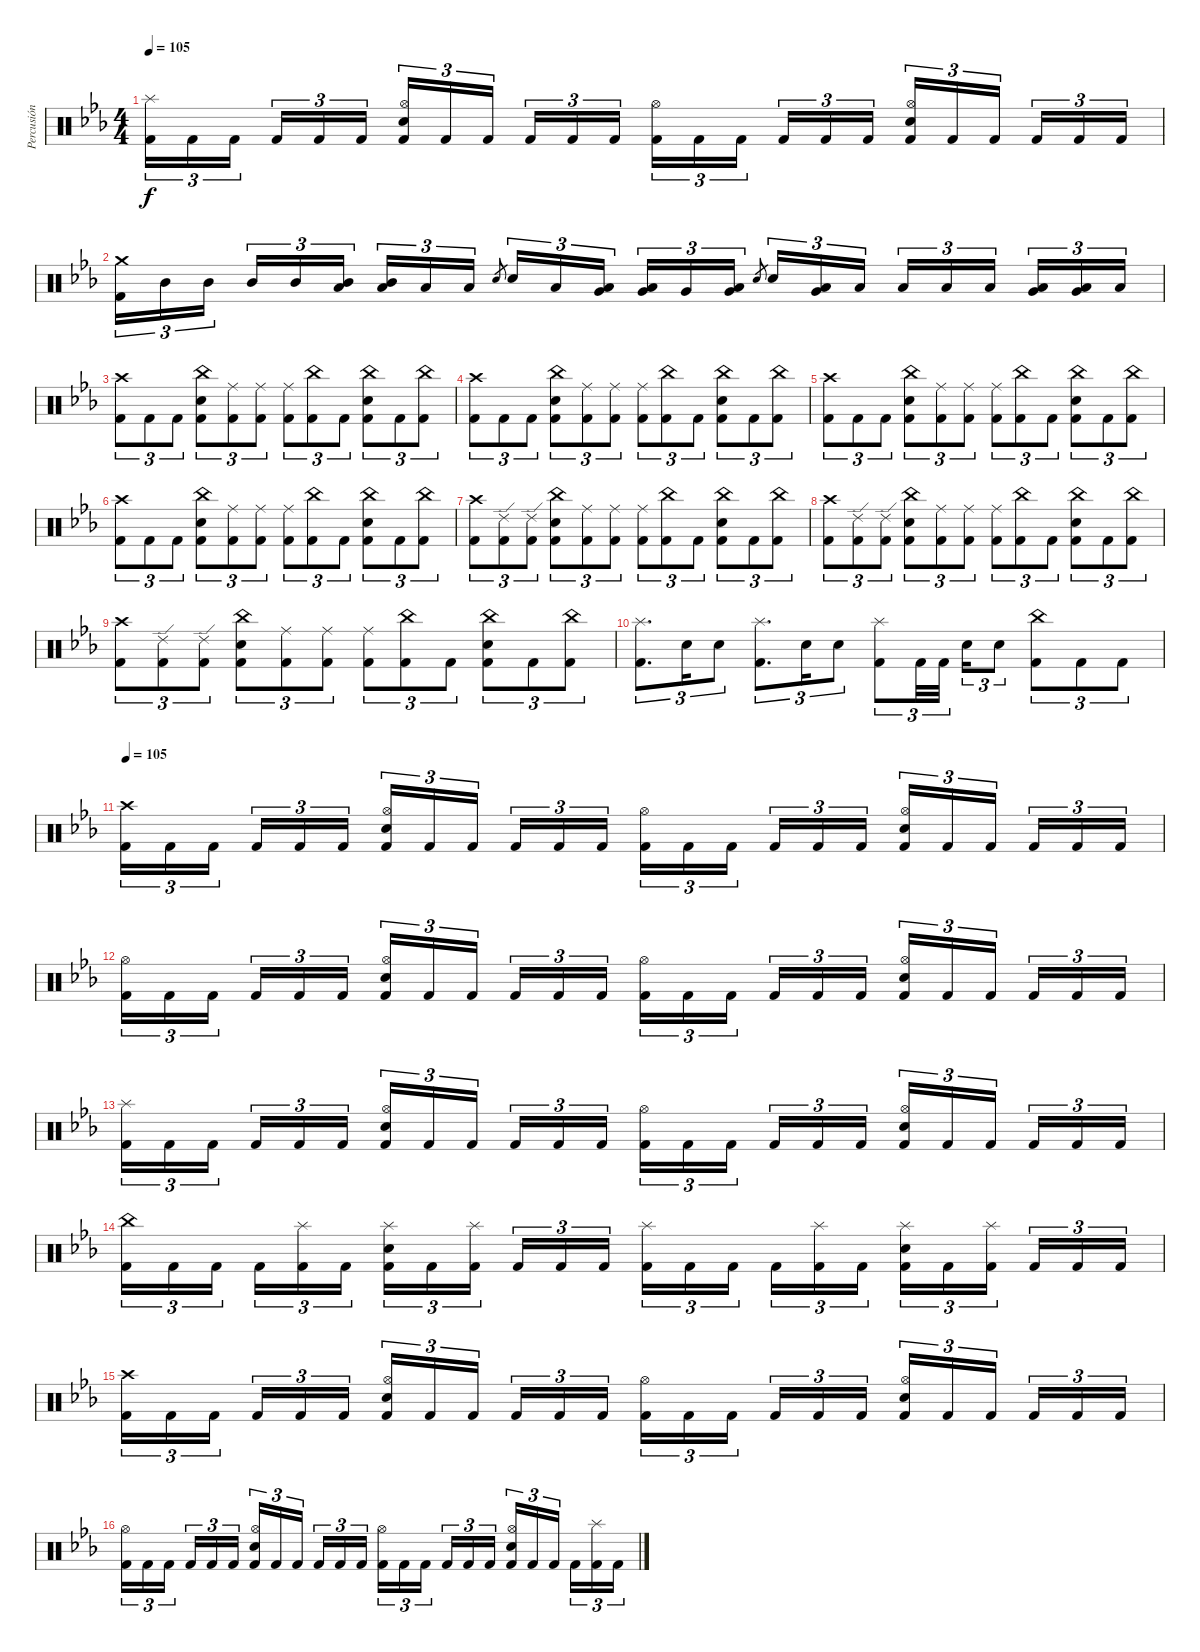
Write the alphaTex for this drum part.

\track ("Percusión" "Percusión") {instrument percussion}
\staff {score}
\articulation defaults
\ts (4 4)
\tempo 105
\clef neutral
\ks cminor
("Splash (hit)" "Kick (hit) 2").16{tu (3 2) dy f} "Kick (hit) 2".16{tu (3 2)} "Kick (hit) 2".16{tu (3 2) beam splitsecondary} "Kick (hit) 2".16{tu (3 2)} "Kick (hit) 2".16{tu (3 2)} "Kick (hit) 2".16{tu (3 2)} ("Hi-Hat (open)" "Snare (hit) 2" "Kick (hit) 2").16{tu (3 2)} "Kick (hit) 2".16{tu (3 2)} "Kick (hit) 2".16{tu (3 2) beam splitsecondary} "Kick (hit) 2".16{tu (3 2)} "Kick (hit) 2".16{tu (3 2)} "Kick (hit) 2".16{tu (3 2)} ("Hi-Hat (open)" "Kick (hit) 2").16{tu (3 2)} "Kick (hit) 2".16{tu (3 2)} "Kick (hit) 2".16{tu (3 2) beam splitsecondary} "Kick (hit) 2".16{tu (3 2)} "Kick (hit) 2".16{tu (3 2)} "Kick (hit) 2".16{tu (3 2)} ("Hi-Hat (open)" "Snare (hit) 2" "Kick (hit) 2").16{tu (3 2)} "Kick (hit) 2".16{tu (3 2)} "Kick (hit) 2".16{tu (3 2) beam splitsecondary} "Kick (hit) 2".16{tu (3 2)} "Kick (hit) 2".16{tu (3 2)} "Kick (hit) 2".16{tu (3 2)} |
("Crash medium (hit)" "Kick (hit) 2").16{tu (3 2)} "Mid Tom (hit)".16{tu (3 2)} "Mid Tom (hit)".16{tu (3 2) beam splitsecondary} "Mid Tom (hit)".16{tu (3 2)} "Mid Tom (hit)".16{tu (3 2)} ("Low Tom (hit)" "Mid Tom (hit)").16{tu (3 2)} ("Low Tom (hit)" "Mid Tom (hit)").16{tu (3 2)} "Low Tom (hit)".16{tu (3 2)} "Low Tom (hit)".16{tu (3 2)} "Snare (hit) 2".8{gr beam splitsecondary} "Snare (hit) 2".16{tu (3 2)} "Low Tom (hit)".16{tu (3 2)} ("Low Tom (hit)" "Very Low Tom (hit)").16{tu (3 2)} ("Low Tom (hit)" "Very Low Tom (hit)").16{tu (3 2)} "Very Low Tom (hit)".16{tu (3 2)} ("Very Low Tom (hit)" "Low Floor Tom (hit)").16{tu (3 2)} "Snare (hit) 2".8{gr beam splitsecondary} "Snare (hit) 2".16{tu (3 2)} ("Very Low Tom (hit)" "Low Floor Tom (hit)").16{tu (3 2)} "Low Floor Tom (hit)".16{tu (3 2)} "Low Floor Tom (hit)".16{tu (3 2)} "Low Floor Tom (hit)".16{tu (3 2)} "Low Floor Tom (hit)".16{tu (3 2) beam splitsecondary} ("Very Low Tom (hit)" "Low Floor Tom (hit)").16{tu (3 2)} ("Very Low Tom (hit)" "Low Floor Tom (hit)").16{tu (3 2)} "Low Floor Tom (hit)".16{tu (3 2)} |
("Crash high (hit)" "Kick (hit) 2").8{tu (3 2)} "Kick (hit) 2".8{tu (3 2)} "Kick (hit) 2".8{tu (3 2)} ("China (hit)" "Snare (hit) 2" "Kick (hit) 2").8{tu (3 2)} ("Ride (middle)" "Kick (hit) 2").8{tu (3 2)} ("Ride (middle)" "Kick (hit) 2").8{tu (3 2)} ("Ride (middle)" "Kick (hit) 2").8{tu (3 2)} ("China (hit)" "Kick (hit) 2").8{tu (3 2)} "Kick (hit) 2".8{tu (3 2)} ("China (hit)" "Snare (hit) 2" "Kick (hit) 2").8{tu (3 2)} "Kick (hit) 2".8{tu (3 2)} ("China (hit)" "Kick (hit) 2").8{tu (3 2)} |
("Crash high (hit)" "Kick (hit) 2").8{tu (3 2)} "Kick (hit) 2".8{tu (3 2)} "Kick (hit) 2".8{tu (3 2)} ("China (hit)" "Snare (hit) 2" "Kick (hit) 2").8{tu (3 2)} ("Ride (middle)" "Kick (hit) 2").8{tu (3 2)} ("Ride (middle)" "Kick (hit) 2").8{tu (3 2)} ("Ride (middle)" "Kick (hit) 2").8{tu (3 2)} ("China (hit)" "Kick (hit) 2").8{tu (3 2)} "Kick (hit) 2".8{tu (3 2)} ("China (hit)" "Snare (hit) 2" "Kick (hit) 2").8{tu (3 2)} "Kick (hit) 2".8{tu (3 2)} ("China (hit)" "Kick (hit) 2").8{tu (3 2)} |
("Crash high (hit)" "Kick (hit) 2").8{tu (3 2)} "Kick (hit) 2".8{tu (3 2)} "Kick (hit) 2".8{tu (3 2)} ("China (hit)" "Snare (hit) 2" "Kick (hit) 2").8{tu (3 2)} ("Ride (middle)" "Kick (hit) 2").8{tu (3 2)} ("Ride (middle)" "Kick (hit) 2").8{tu (3 2)} ("Ride (middle)" "Kick (hit) 2").8{tu (3 2)} ("China (hit)" "Kick (hit) 2").8{tu (3 2)} "Kick (hit) 2".8{tu (3 2)} ("China (hit)" "Snare (hit) 2" "Kick (hit) 2").8{tu (3 2)} "Kick (hit) 2".8{tu (3 2)} ("China (hit)" "Kick (hit) 2").8{tu (3 2)} |
("Crash high (hit)" "Kick (hit) 2").8{tu (3 2)} "Kick (hit) 2".8{tu (3 2)} "Kick (hit) 2".8{tu (3 2)} ("China (hit)" "Snare (hit) 2" "Kick (hit) 2").8{tu (3 2)} ("Ride (middle)" "Kick (hit) 2").8{tu (3 2)} ("Ride (middle)" "Kick (hit) 2").8{tu (3 2)} ("Ride (middle)" "Kick (hit) 2").8{tu (3 2)} ("China (hit)" "Kick (hit) 2").8{tu (3 2)} "Kick (hit) 2".8{tu (3 2)} ("China (hit)" "Snare (hit) 2" "Kick (hit) 2").8{tu (3 2)} "Kick (hit) 2".8{tu (3 2)} ("China (hit)" "Kick (hit) 2").8{tu (3 2)} |
("Crash high (hit)" "Kick (hit) 2").8{tu (3 2)} ("Ride (edge) 2" "Kick (hit) 2").8{tu (3 2)} ("Ride (edge) 2" "Kick (hit) 2").8{tu (3 2)} ("China (hit)" "Snare (hit) 2" "Kick (hit) 2").8{tu (3 2)} ("Ride (middle)" "Kick (hit) 2").8{tu (3 2)} ("Ride (middle)" "Kick (hit) 2").8{tu (3 2)} ("Ride (middle)" "Kick (hit) 2").8{tu (3 2)} ("China (hit)" "Kick (hit) 2").8{tu (3 2)} "Kick (hit) 2".8{tu (3 2)} ("China (hit)" "Snare (hit) 2" "Kick (hit) 2").8{tu (3 2)} "Kick (hit) 2".8{tu (3 2)} ("China (hit)" "Kick (hit) 2").8{tu (3 2)} |
("Crash high (hit)" "Kick (hit) 2").8{tu (3 2)} ("Ride (edge) 2" "Kick (hit) 2").8{tu (3 2)} ("Ride (edge) 2" "Kick (hit) 2").8{tu (3 2)} ("China (hit)" "Snare (hit) 2" "Kick (hit) 2").8{tu (3 2)} ("Ride (middle)" "Kick (hit) 2").8{tu (3 2)} ("Ride (middle)" "Kick (hit) 2").8{tu (3 2)} ("Ride (middle)" "Kick (hit) 2").8{tu (3 2)} ("China (hit)" "Kick (hit) 2").8{tu (3 2)} "Kick (hit) 2".8{tu (3 2)} ("China (hit)" "Snare (hit) 2" "Kick (hit) 2").8{tu (3 2)} "Kick (hit) 2".8{tu (3 2)} ("China (hit)" "Kick (hit) 2").8{tu (3 2)} |
("Crash high (hit)" "Kick (hit) 2").8{tu (3 2)} ("Ride (edge) 2" "Kick (hit) 2").8{tu (3 2)} ("Ride (edge) 2" "Kick (hit) 2").8{tu (3 2)} ("China (hit)" "Snare (hit) 2" "Kick (hit) 2").8{tu (3 2)} ("Ride (middle)" "Kick (hit) 2").8{tu (3 2)} ("Ride (middle)" "Kick (hit) 2").8{tu (3 2)} ("Ride (middle)" "Kick (hit) 2").8{tu (3 2)} ("China (hit)" "Kick (hit) 2").8{tu (3 2)} "Kick (hit) 2".8{tu (3 2)} ("China (hit)" "Snare (hit) 2" "Kick (hit) 2").8{tu (3 2)} "Kick (hit) 2".8{tu (3 2)} ("China (hit)" "Kick (hit) 2").8{tu (3 2)} |
("Splash (hit)" "Kick (hit) 2").8{d tu (3 2)} "Snare (hit) 2".16{tu (3 2)} "Snare (hit) 2".8{tu (3 2)} ("Splash (hit)" "Kick (hit) 2").8{d tu (3 2)} "Snare (hit) 2".16{tu (3 2)} "Snare (hit) 2".8{tu (3 2)} ("Splash (hit)" "Kick (hit) 2").8{tu (3 2)} "Kick (hit) 2".32{tu (3 2)} "Kick (hit) 2".32{tu (3 2) beam splitsecondary} "Snare (hit) 2".16{tu (3 2)} "Snare (hit) 2".8{tu (3 2)} ("China (hit)" "Kick (hit) 2").8{tu (3 2)} "Kick (hit) 2".8{tu (3 2)} "Kick (hit) 2".8{tu (3 2)} |
\tempo 105
("Crash high (hit)" "Kick (hit) 2").16{tu (3 2)} "Kick (hit) 2".16{tu (3 2)} "Kick (hit) 2".16{tu (3 2) beam splitsecondary} "Kick (hit) 2".16{tu (3 2)} "Kick (hit) 2".16{tu (3 2)} "Kick (hit) 2".16{tu (3 2)} ("Hi-Hat (open)" "Snare (hit) 2" "Kick (hit) 2").16{tu (3 2)} "Kick (hit) 2".16{tu (3 2)} "Kick (hit) 2".16{tu (3 2) beam splitsecondary} "Kick (hit) 2".16{tu (3 2)} "Kick (hit) 2".16{tu (3 2)} "Kick (hit) 2".16{tu (3 2)} ("Hi-Hat (open)" "Kick (hit) 2").16{tu (3 2)} "Kick (hit) 2".16{tu (3 2)} "Kick (hit) 2".16{tu (3 2) beam splitsecondary} "Kick (hit) 2".16{tu (3 2)} "Kick (hit) 2".16{tu (3 2)} "Kick (hit) 2".16{tu (3 2)} ("Hi-Hat (open)" "Snare (hit) 2" "Kick (hit) 2").16{tu (3 2)} "Kick (hit) 2".16{tu (3 2)} "Kick (hit) 2".16{tu (3 2) beam splitsecondary} "Kick (hit) 2".16{tu (3 2)} "Kick (hit) 2".16{tu (3 2)} "Kick (hit) 2".16{tu (3 2)} |
("Hi-Hat (open)" "Kick (hit) 2").16{tu (3 2)} "Kick (hit) 2".16{tu (3 2)} "Kick (hit) 2".16{tu (3 2) beam splitsecondary} "Kick (hit) 2".16{tu (3 2)} "Kick (hit) 2".16{tu (3 2)} "Kick (hit) 2".16{tu (3 2)} ("Hi-Hat (open)" "Snare (hit) 2" "Kick (hit) 2").16{tu (3 2)} "Kick (hit) 2".16{tu (3 2)} "Kick (hit) 2".16{tu (3 2) beam splitsecondary} "Kick (hit) 2".16{tu (3 2)} "Kick (hit) 2".16{tu (3 2)} "Kick (hit) 2".16{tu (3 2)} ("Hi-Hat (open)" "Kick (hit) 2").16{tu (3 2)} "Kick (hit) 2".16{tu (3 2)} "Kick (hit) 2".16{tu (3 2) beam splitsecondary} "Kick (hit) 2".16{tu (3 2)} "Kick (hit) 2".16{tu (3 2)} "Kick (hit) 2".16{tu (3 2)} ("Hi-Hat (open)" "Snare (hit) 2" "Kick (hit) 2").16{tu (3 2)} "Kick (hit) 2".16{tu (3 2)} "Kick (hit) 2".16{tu (3 2) beam splitsecondary} "Kick (hit) 2".16{tu (3 2)} "Kick (hit) 2".16{tu (3 2)} "Kick (hit) 2".16{tu (3 2)} |
("Splash (hit)" "Kick (hit) 2").16{tu (3 2)} "Kick (hit) 2".16{tu (3 2)} "Kick (hit) 2".16{tu (3 2) beam splitsecondary} "Kick (hit) 2".16{tu (3 2)} "Kick (hit) 2".16{tu (3 2)} "Kick (hit) 2".16{tu (3 2)} ("Hi-Hat (open)" "Snare (hit) 2" "Kick (hit) 2").16{tu (3 2)} "Kick (hit) 2".16{tu (3 2)} "Kick (hit) 2".16{tu (3 2) beam splitsecondary} "Kick (hit) 2".16{tu (3 2)} "Kick (hit) 2".16{tu (3 2)} "Kick (hit) 2".16{tu (3 2)} ("Hi-Hat (open)" "Kick (hit) 2").16{tu (3 2)} "Kick (hit) 2".16{tu (3 2)} "Kick (hit) 2".16{tu (3 2) beam splitsecondary} "Kick (hit) 2".16{tu (3 2)} "Kick (hit) 2".16{tu (3 2)} "Kick (hit) 2".16{tu (3 2)} ("Hi-Hat (open)" "Snare (hit) 2" "Kick (hit) 2").16{tu (3 2)} "Kick (hit) 2".16{tu (3 2)} "Kick (hit) 2".16{tu (3 2) beam splitsecondary} "Kick (hit) 2".16{tu (3 2)} "Kick (hit) 2".16{tu (3 2)} "Kick (hit) 2".16{tu (3 2)} |
("China (hit)" "Kick (hit) 2").16{tu (3 2)} "Kick (hit) 2".16{tu (3 2)} "Kick (hit) 2".16{tu (3 2) beam splitsecondary} "Kick (hit) 2".16{tu (3 2)} ("Splash (hit)" "Kick (hit) 2").16{tu (3 2)} "Kick (hit) 2".16{tu (3 2)} ("Splash (hit)" "Snare (hit) 2" "Kick (hit) 2").16{tu (3 2)} "Kick (hit) 2".16{tu (3 2)} ("Splash (hit)" "Kick (hit) 2").16{tu (3 2) beam splitsecondary} "Kick (hit) 2".16{tu (3 2)} "Kick (hit) 2".16{tu (3 2)} "Kick (hit) 2".16{tu (3 2)} ("Splash (hit)" "Kick (hit) 2").16{tu (3 2)} "Kick (hit) 2".16{tu (3 2)} "Kick (hit) 2".16{tu (3 2) beam splitsecondary} "Kick (hit) 2".16{tu (3 2)} ("Splash (hit)" "Kick (hit) 2").16{tu (3 2)} "Kick (hit) 2".16{tu (3 2)} ("Splash (hit)" "Snare (hit) 2" "Kick (hit) 2").16{tu (3 2)} "Kick (hit) 2".16{tu (3 2)} ("Splash (hit)" "Kick (hit) 2").16{tu (3 2) beam splitsecondary} "Kick (hit) 2".16{tu (3 2)} "Kick (hit) 2".16{tu (3 2)} "Kick (hit) 2".16{tu (3 2)} |
("Crash high (hit)" "Kick (hit) 2").16{tu (3 2)} "Kick (hit) 2".16{tu (3 2)} "Kick (hit) 2".16{tu (3 2) beam splitsecondary} "Kick (hit) 2".16{tu (3 2)} "Kick (hit) 2".16{tu (3 2)} "Kick (hit) 2".16{tu (3 2)} ("Hi-Hat (open)" "Snare (hit) 2" "Kick (hit) 2").16{tu (3 2)} "Kick (hit) 2".16{tu (3 2)} "Kick (hit) 2".16{tu (3 2) beam splitsecondary} "Kick (hit) 2".16{tu (3 2)} "Kick (hit) 2".16{tu (3 2)} "Kick (hit) 2".16{tu (3 2)} ("Hi-Hat (open)" "Kick (hit) 2").16{tu (3 2)} "Kick (hit) 2".16{tu (3 2)} "Kick (hit) 2".16{tu (3 2) beam splitsecondary} "Kick (hit) 2".16{tu (3 2)} "Kick (hit) 2".16{tu (3 2)} "Kick (hit) 2".16{tu (3 2)} ("Hi-Hat (open)" "Snare (hit) 2" "Kick (hit) 2").16{tu (3 2)} "Kick (hit) 2".16{tu (3 2)} "Kick (hit) 2".16{tu (3 2) beam splitsecondary} "Kick (hit) 2".16{tu (3 2)} "Kick (hit) 2".16{tu (3 2)} "Kick (hit) 2".16{tu (3 2)} |
("Hi-Hat (open)" "Kick (hit) 2").16{tu (3 2)} "Kick (hit) 2".16{tu (3 2)} "Kick (hit) 2".16{tu (3 2) beam splitsecondary} "Kick (hit) 2".16{tu (3 2)} "Kick (hit) 2".16{tu (3 2)} "Kick (hit) 2".16{tu (3 2)} ("Hi-Hat (open)" "Snare (hit) 2" "Kick (hit) 2").16{tu (3 2)} "Kick (hit) 2".16{tu (3 2)} "Kick (hit) 2".16{tu (3 2) beam splitsecondary} "Kick (hit) 2".16{tu (3 2)} "Kick (hit) 2".16{tu (3 2)} "Kick (hit) 2".16{tu (3 2)} ("Hi-Hat (open)" "Kick (hit) 2").16{tu (3 2)} "Kick (hit) 2".16{tu (3 2)} "Kick (hit) 2".16{tu (3 2) beam splitsecondary} "Kick (hit) 2".16{tu (3 2)} "Kick (hit) 2".16{tu (3 2)} "Kick (hit) 2".16{tu (3 2)} ("Hi-Hat (open)" "Snare (hit) 2" "Kick (hit) 2").16{tu (3 2)} "Kick (hit) 2".16{tu (3 2)} "Kick (hit) 2".16{tu (3 2) beam splitsecondary} "Kick (hit) 2".16{tu (3 2)} ("Splash (hit)" "Kick (hit) 2").16{tu (3 2)} "Kick (hit) 2".16{tu (3 2)}
